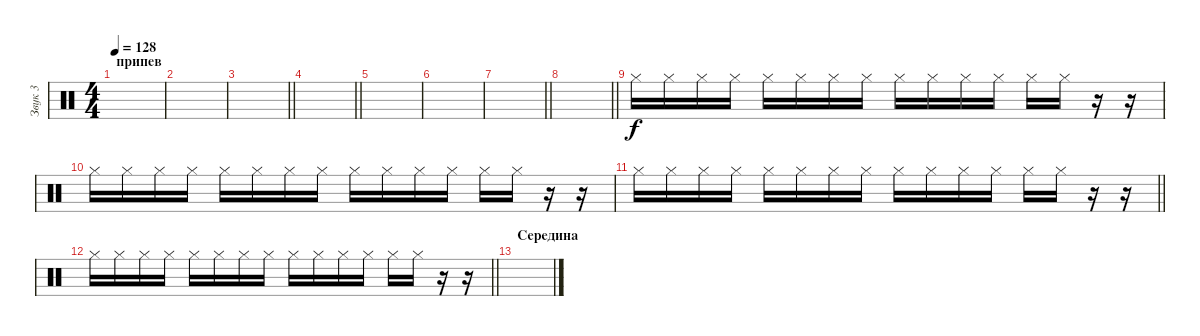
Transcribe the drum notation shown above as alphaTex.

\track ("Звук 3" "Звук 3") {instrument percussion}
\staff {score}
\articulation defaults
\ts (4 4)
\section ("" "припев")
\tempo 128
\clef neutral
\ks c
|
|
\barLineRight lightlight
|
\barLineRight lightlight
|
|
|
\barLineRight lightlight
|
\barLineRight lightlight
|
"Hi-Hat (closed)".16 "Hi-Hat (closed)".16 "Hi-Hat (closed)".16 "Hi-Hat (closed)".16 "Hi-Hat (closed)".16 "Hi-Hat (closed)".16 "Hi-Hat (closed)".16 "Hi-Hat (closed)".16 "Hi-Hat (closed)".16 "Hi-Hat (closed)".16 "Hi-Hat (closed)".16 "Hi-Hat (closed)".16 "Hi-Hat (closed)".16 "Hi-Hat (closed)".16 r.16 r.16 |
"Hi-Hat (closed)".16 "Hi-Hat (closed)".16 "Hi-Hat (closed)".16 "Hi-Hat (closed)".16 "Hi-Hat (closed)".16 "Hi-Hat (closed)".16 "Hi-Hat (closed)".16 "Hi-Hat (closed)".16 "Hi-Hat (closed)".16 "Hi-Hat (closed)".16 "Hi-Hat (closed)".16 "Hi-Hat (closed)".16 "Hi-Hat (closed)".16 "Hi-Hat (closed)".16 r.16 r.16 |
\barLineRight lightlight "Hi-Hat (closed)".16 "Hi-Hat (closed)".16 "Hi-Hat (closed)".16 "Hi-Hat (closed)".16 "Hi-Hat (closed)".16 "Hi-Hat (closed)".16 "Hi-Hat (closed)".16 "Hi-Hat (closed)".16 "Hi-Hat (closed)".16 "Hi-Hat (closed)".16 "Hi-Hat (closed)".16 "Hi-Hat (closed)".16 "Hi-Hat (closed)".16 "Hi-Hat (closed)".16
r.16 r.16 |
\barLineRight lightlight "Hi-Hat (closed)".16 "Hi-Hat (closed)".16 "Hi-Hat (closed)".16 "Hi-Hat (closed)".16 "Hi-Hat (closed)".16 "Hi-Hat (closed)".16 "Hi-Hat (closed)".16 "Hi-Hat (closed)".16 "Hi-Hat (closed)".16 "Hi-Hat (closed)".16 "Hi-Hat (closed)".16 "Hi-Hat (closed)".16 "Hi-Hat (closed)".16 "Hi-Hat (closed)".16
r.16 r.16 |
\section ("" "Середина")
